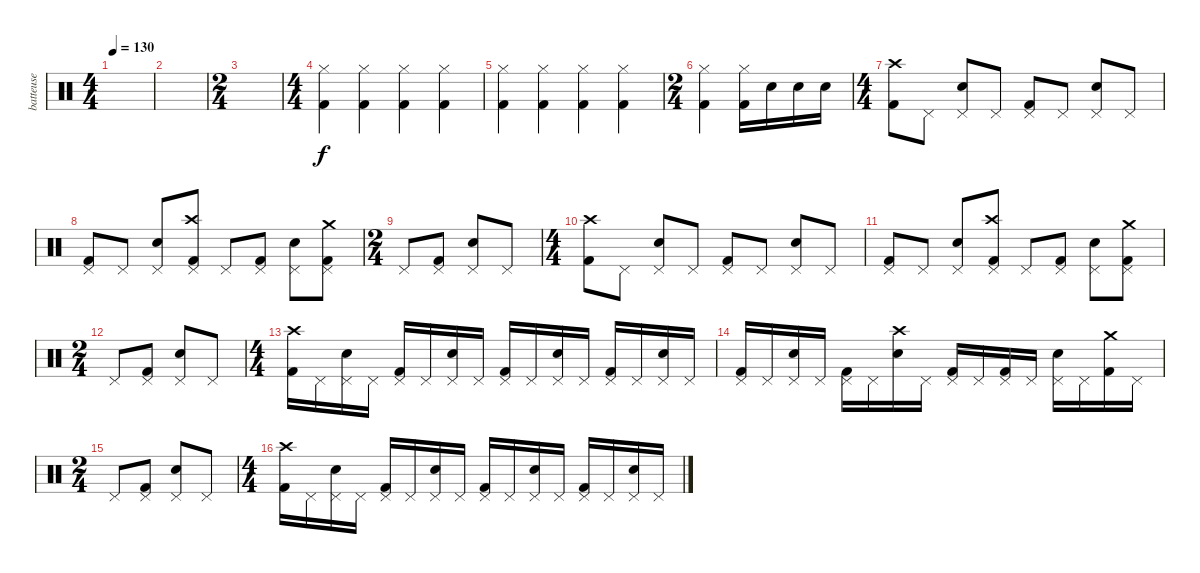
\track ("batteuse" "batteuse") {instrument percussion}
\staff {score}
\articulation defaults
\ts (4 4)
\tempo 130
\clef neutral
\ks c
|
|
\ts (2 4)
|
\ts (4 4)
("Kick (hit) 2" "Hi-Hat (closed)").4 ("Kick (hit) 2" "Hi-Hat (closed)").4 ("Kick (hit) 2" "Hi-Hat (closed)").4 ("Kick (hit) 2" "Hi-Hat (closed)").4 |
("Kick (hit) 2" "Hi-Hat (closed)").4 ("Kick (hit) 2" "Hi-Hat (closed)").4 ("Kick (hit) 2" "Hi-Hat (closed)").4 ("Kick (hit) 2" "Hi-Hat (closed)").4 |
\ts (2 4)
("Kick (hit) 2" "Hi-Hat (closed)").4 ("Kick (hit) 2" "Hi-Hat (closed)").16 "Snare (hit) 2".16 "Snare (hit) 2".16 "Snare (hit) 2".16 |
\ts (4 4)
("Crash high (hit)" "Kick (hit) 2").8 "Pedal Hi-Hat (hit)".8 ("Snare (hit) 2" "Pedal Hi-Hat (hit)").8 "Pedal Hi-Hat (hit)".8 ("Kick (hit) 2" "Pedal Hi-Hat (hit)").8 "Pedal Hi-Hat (hit)".8 ("Snare (hit) 2" "Pedal Hi-Hat (hit)").8 "Pedal Hi-Hat (hit)".8 |
("Kick (hit) 2" "Pedal Hi-Hat (hit)").8 "Pedal Hi-Hat (hit)".8 ("Snare (hit) 2" "Pedal Hi-Hat (hit)").8 ("Crash high (hit)" "Kick (hit) 2" "Pedal Hi-Hat (hit)").8 "Pedal Hi-Hat (hit)".8 ("Kick (hit) 2" "Pedal Hi-Hat (hit)").8 ("Snare (hit) 2" "Pedal Hi-Hat (hit)").8 ("Crash medium (hit)" "Kick (hit) 2" "Pedal Hi-Hat (hit)").8 |
\ts (2 4)
"Pedal Hi-Hat (hit)".8 ("Kick (hit) 2" "Pedal Hi-Hat (hit)").8 ("Snare (hit) 2" "Pedal Hi-Hat (hit)").8 "Pedal Hi-Hat (hit)".8 |
\ts (4 4)
("Crash high (hit)" "Kick (hit) 2").8 "Pedal Hi-Hat (hit)".8 ("Snare (hit) 2" "Pedal Hi-Hat (hit)").8 "Pedal Hi-Hat (hit)".8 ("Kick (hit) 2" "Pedal Hi-Hat (hit)").8 "Pedal Hi-Hat (hit)".8 ("Snare (hit) 2" "Pedal Hi-Hat (hit)").8 "Pedal Hi-Hat (hit)".8 |
("Kick (hit) 2" "Pedal Hi-Hat (hit)").8 "Pedal Hi-Hat (hit)".8 ("Snare (hit) 2" "Pedal Hi-Hat (hit)").8 ("Crash high (hit)" "Kick (hit) 2" "Pedal Hi-Hat (hit)").8 "Pedal Hi-Hat (hit)".8 ("Kick (hit) 2" "Pedal Hi-Hat (hit)").8 ("Snare (hit) 2" "Pedal Hi-Hat (hit)").8 ("Crash medium (hit)" "Kick (hit) 2" "Pedal Hi-Hat (hit)").8 |
\ts (2 4)
"Pedal Hi-Hat (hit)".8 ("Kick (hit) 2" "Pedal Hi-Hat (hit)").8 ("Snare (hit) 2" "Pedal Hi-Hat (hit)").8 "Pedal Hi-Hat (hit)".8 |
\ts (4 4)
("Crash high (hit)" "Kick (hit) 2").16 "Pedal Hi-Hat (hit)".16 ("Snare (hit) 2" "Pedal Hi-Hat (hit)").16 "Pedal Hi-Hat (hit)".16 ("Kick (hit) 2" "Pedal Hi-Hat (hit)").16 "Pedal Hi-Hat (hit)".16 ("Snare (hit) 2" "Pedal Hi-Hat (hit)").16 "Pedal Hi-Hat (hit)".16 ("Kick (hit) 2" "Pedal Hi-Hat (hit)").16 "Pedal Hi-Hat (hit)".16 ("Snare (hit) 2" "Pedal Hi-Hat (hit)").16 "Pedal Hi-Hat (hit)".16 ("Kick (hit) 2" "Pedal Hi-Hat (hit)").16 "Pedal Hi-Hat (hit)".16 ("Snare (hit) 2" "Pedal Hi-Hat (hit)").16 "Pedal Hi-Hat (hit)".16 |
("Kick (hit) 2" "Pedal Hi-Hat (hit)").16 "Pedal Hi-Hat (hit)".16 ("Snare (hit) 2" "Pedal Hi-Hat (hit)").16 "Pedal Hi-Hat (hit)".16 ("Kick (hit) 2" "Pedal Hi-Hat (hit)").16 "Pedal Hi-Hat (hit)".16 ("Crash high (hit)" "Snare (hit) 2").16 "Pedal Hi-Hat (hit)".16 ("Kick (hit) 2" "Pedal Hi-Hat (hit)").16 "Pedal Hi-Hat (hit)".16 ("Kick (hit) 2" "Pedal Hi-Hat (hit)").16 "Pedal Hi-Hat (hit)".16 ("Snare (hit) 2" "Pedal Hi-Hat (hit)").16 "Pedal Hi-Hat (hit)".16 ("Crash medium (hit)" "Kick (hit) 2").16 "Pedal Hi-Hat (hit)".16 |
\ts (2 4)
"Pedal Hi-Hat (hit)".8 ("Kick (hit) 2" "Pedal Hi-Hat (hit)").8 ("Snare (hit) 2" "Pedal Hi-Hat (hit)").8 "Pedal Hi-Hat (hit)".8 |
\ts (4 4)
("Crash high (hit)" "Kick (hit) 2").16 "Pedal Hi-Hat (hit)".16 ("Snare (hit) 2" "Pedal Hi-Hat (hit)").16 "Pedal Hi-Hat (hit)".16 ("Kick (hit) 2" "Pedal Hi-Hat (hit)").16 "Pedal Hi-Hat (hit)".16 ("Snare (hit) 2" "Pedal Hi-Hat (hit)").16 "Pedal Hi-Hat (hit)".16 ("Kick (hit) 2" "Pedal Hi-Hat (hit)").16 "Pedal Hi-Hat (hit)".16 ("Snare (hit) 2" "Pedal Hi-Hat (hit)").16 "Pedal Hi-Hat (hit)".16 ("Kick (hit) 2" "Pedal Hi-Hat (hit)").16 "Pedal Hi-Hat (hit)".16 ("Snare (hit) 2" "Pedal Hi-Hat (hit)").16 "Pedal Hi-Hat (hit)".16
